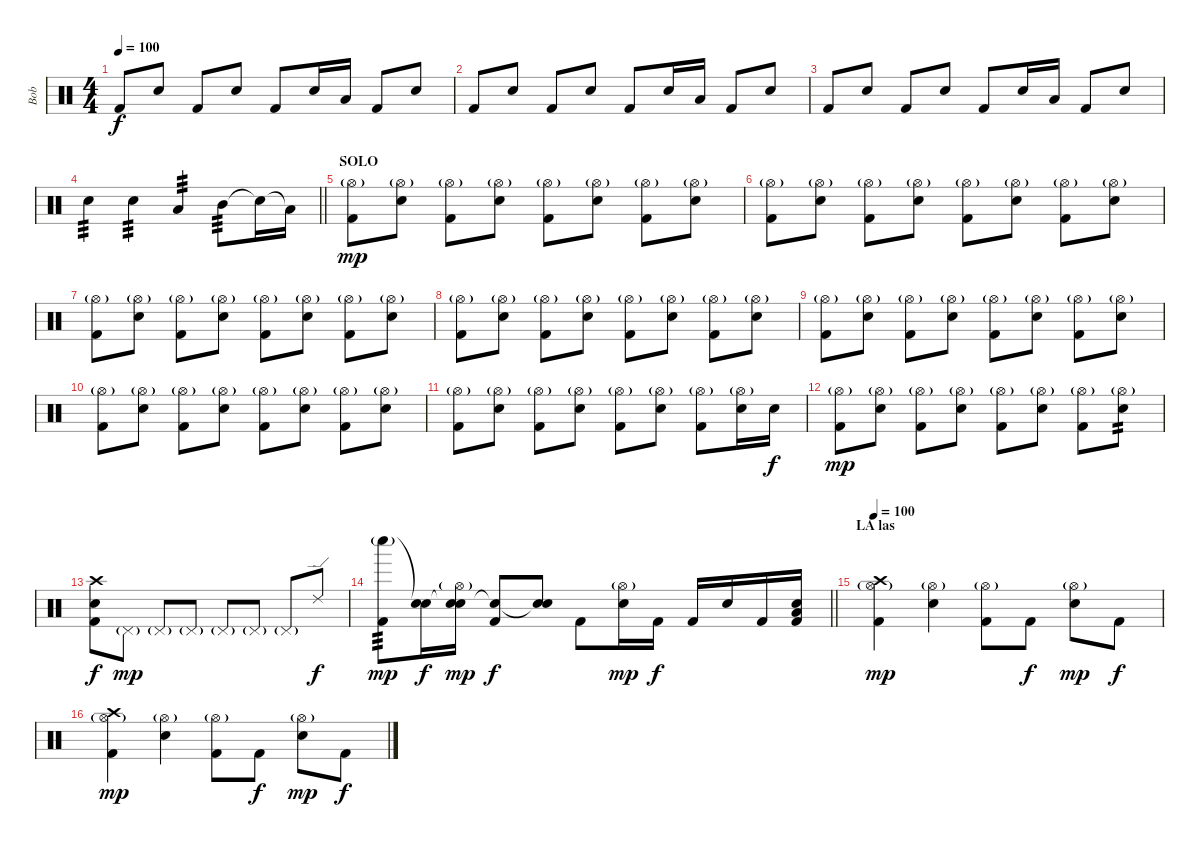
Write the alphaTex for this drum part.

\track ("Bob" "Bob") {instrument percussion}
\staff {score}
\articulation defaults
\ts (4 4)
\tempo 100
\clef neutral
\ks c "Kick (hit) 2".8{dy f} "Electric Snare (hit)".8 "Kick (hit) 2".8 "Electric Snare (hit)".8 "Kick (hit) 2".8 "Electric Snare (hit)".16 "Low Tom (hit)".16 "Kick (hit) 2".8 "Electric Snare (hit)".8
|
"Kick (hit) 2".8 "Electric Snare (hit)".8 "Kick (hit) 2".8 "Electric Snare (hit)".8 "Kick (hit) 2".8 "Electric Snare (hit)".16 "Low Tom (hit)".16 "Kick (hit) 2".8 "Electric Snare (hit)".8 |
"Kick (hit) 2".8 "Electric Snare (hit)".8 "Kick (hit) 2".8 "Electric Snare (hit)".8 "Kick (hit) 2".8 "Electric Snare (hit)".16 "Low Tom (hit)".16 "Kick (hit) 2".8 "Electric Snare (hit)".8 |
\barLineRight lightlight "Electric Snare (hit)".4{tp 3} "Snare (hit) 2".4{tp 3} "Low Tom (hit)".4{tp 3} "Mid Tom (hit)".8{tp 3} "Snare (hit)"{t}.16 "Low Tom (hit)"{t}.16
|
\section ("" "SOLO")
("Hi-Hat (open)"{g} "Kick (hit) 2").8{dy mp} ("Hi-Hat (open)"{g} "Electric Snare (hit)").8 ("Hi-Hat (open)"{g} "Kick (hit) 2").8 ("Hi-Hat (open)"{g} "Electric Snare (hit)").8 ("Hi-Hat (open)"{g} "Kick (hit) 2").8 ("Hi-Hat (open)"{g} "Electric Snare (hit)").8 ("Hi-Hat (open)"{g} "Kick (hit) 2").8 ("Hi-Hat (open)"{g} "Electric Snare (hit)").8 |
("Hi-Hat (open)"{g} "Kick (hit) 2").8 ("Hi-Hat (open)"{g} "Electric Snare (hit)").8 ("Hi-Hat (open)"{g} "Kick (hit) 2").8 ("Hi-Hat (open)"{g} "Electric Snare (hit)").8 ("Hi-Hat (open)"{g} "Kick (hit) 2").8 ("Hi-Hat (open)"{g} "Electric Snare (hit)").8 ("Hi-Hat (open)"{g} "Kick (hit) 2").8 ("Hi-Hat (open)"{g} "Electric Snare (hit)").8 |
("Hi-Hat (open)"{g} "Kick (hit) 2").8 ("Hi-Hat (open)"{g} "Electric Snare (hit)").8 ("Hi-Hat (open)"{g} "Kick (hit) 2").8 ("Hi-Hat (open)"{g} "Electric Snare (hit)").8 ("Hi-Hat (open)"{g} "Kick (hit) 2").8 ("Hi-Hat (open)"{g} "Electric Snare (hit)").8 ("Hi-Hat (open)"{g} "Kick (hit) 2").8 ("Hi-Hat (open)"{g} "Electric Snare (hit)").8 |
("Hi-Hat (open)"{g} "Kick (hit) 2").8 ("Hi-Hat (open)"{g} "Electric Snare (hit)").8 ("Hi-Hat (open)"{g} "Kick (hit) 2").8 ("Hi-Hat (open)"{g} "Electric Snare (hit)").8 ("Hi-Hat (open)"{g} "Kick (hit) 2").8 ("Hi-Hat (open)"{g} "Electric Snare (hit)").8 ("Hi-Hat (open)"{g} "Kick (hit) 2").8 ("Hi-Hat (open)"{g} "Electric Snare (hit)").8 |
("Hi-Hat (open)"{g} "Kick (hit) 2").8 ("Hi-Hat (open)"{g} "Electric Snare (hit)").8 ("Hi-Hat (open)"{g} "Kick (hit) 2").8 ("Hi-Hat (open)"{g} "Electric Snare (hit)").8 ("Hi-Hat (open)"{g} "Kick (hit) 2").8 ("Hi-Hat (open)"{g} "Electric Snare (hit)").8 ("Hi-Hat (open)"{g} "Kick (hit) 2").8 ("Hi-Hat (open)"{g} "Electric Snare (hit)").8 |
("Hi-Hat (open)"{g} "Kick (hit) 2").8 ("Hi-Hat (open)"{g} "Electric Snare (hit)").8 ("Hi-Hat (open)"{g} "Kick (hit) 2").8 ("Hi-Hat (open)"{g} "Electric Snare (hit)").8 ("Hi-Hat (open)"{g} "Kick (hit) 2").8 ("Hi-Hat (open)"{g} "Electric Snare (hit)").8 ("Hi-Hat (open)"{g} "Kick (hit) 2").8 ("Hi-Hat (open)"{g} "Electric Snare (hit)").8 |
("Hi-Hat (open)"{g} "Kick (hit) 2").8 ("Hi-Hat (open)"{g} "Electric Snare (hit)").8 ("Hi-Hat (open)"{g} "Kick (hit) 2").8 ("Hi-Hat (open)"{g} "Electric Snare (hit)").8 ("Hi-Hat (open)"{g} "Kick (hit) 2").8 ("Hi-Hat (open)"{g} "Electric Snare (hit)").8 ("Hi-Hat (open)"{g} "Kick (hit) 2").8 ("Hi-Hat (open)"{g} "Electric Snare (hit)").16 "Electric Snare (hit)".16{dy f} |
("Hi-Hat (open)"{g} "Kick (hit) 2").8{dy mp} ("Hi-Hat (open)"{g} "Electric Snare (hit)").8 ("Hi-Hat (open)"{g} "Kick (hit) 2").8 ("Hi-Hat (open)"{g} "Electric Snare (hit)").8 ("Hi-Hat (open)"{g} "Kick (hit) 2").8 ("Hi-Hat (open)"{g} "Electric Snare (hit)").8 ("Hi-Hat (open)"{g} "Kick (hit) 2").8 ("Hi-Hat (open)"{g} "Electric Snare (hit)").8{tp 2} |
("Crash high (hit)" "Electric Snare (hit)" "Kick (hit) 2").8{dy f} "Pedal Hi-Hat (hit)"{g}.8{dy mp} "Pedal Hi-Hat (hit)"{g}.8 "Pedal Hi-Hat (hit)"{g}.8 "Pedal Hi-Hat (hit)"{g}.8 "Pedal Hi-Hat (hit)"{g}.8 "Pedal Hi-Hat (hit)"{g}.8 "Ride (edge) 2".8{dy f} |
\barLineRight lightlight
("Whistle low (hit)"{g} "Kick (hit) 2").8{tp 3 dy mp} ("Snare (hit)"{t} "Electric Snare (hit)").16{dy f} ("Snare (hit)"{t} "Hi-Hat (open)"{g} "Electric Snare (hit)").16{dy mp} ("Snare (hit)"{t} "Kick (hit) 2").8{dy f} ("Snare (hit)"{t} "Electric Snare (hit)").8 "Kick (hit) 2".8 ("Hi-Hat (open)"{g} "Electric Snare (hit)").16{dy mp} "Kick (hit) 2".16{dy f} "Kick (hit) 2".16 "Electric Snare (hit)".16 "Kick (hit) 2".16 ("Electric Snare (hit)" "Low Tom (hit)" "Kick (hit) 2").16 |
\section ("" "LA las")
\tempo 100
("Hi-Hat (open)"{g} "Crash high (hit)" "Kick (hit) 2").4{dy mp} ("Hi-Hat (open)"{g} "Electric Snare (hit)").4 ("Hi-Hat (open)"{g} "Kick (hit) 2").8 "Kick (hit) 2".8{dy f} ("Hi-Hat (open)"{g} "Electric Snare (hit)").8{dy mp} "Kick (hit) 2".8{dy f} |
("Hi-Hat (open)"{g} "Crash high (hit)" "Kick (hit) 2").4{dy mp} ("Hi-Hat (open)"{g} "Electric Snare (hit)").4 ("Hi-Hat (open)"{g} "Kick (hit) 2").8 "Kick (hit) 2".8{dy f} ("Hi-Hat (open)"{g} "Electric Snare (hit)").8{dy mp} "Kick (hit) 2".8{dy f}
